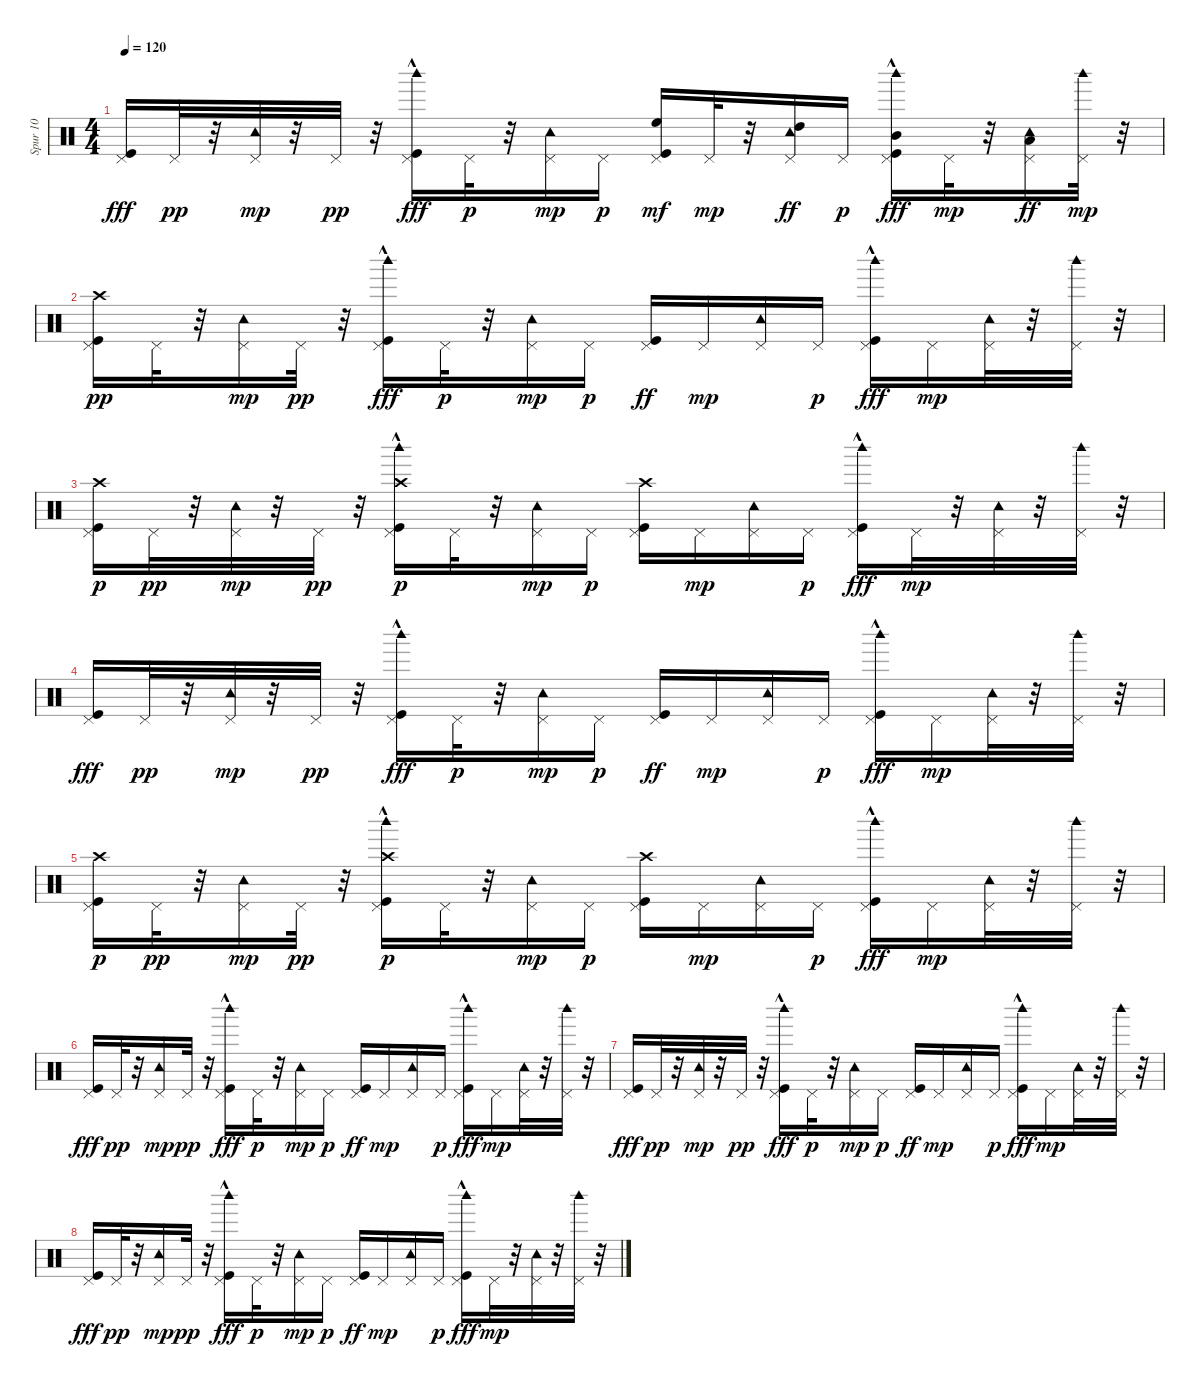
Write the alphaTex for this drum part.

\track ("Spur 10" "Spur 10") {instrument percussion}
\staff {score}
\articulation defaults
\ts (4 4)
\tempo 120
\clef neutral
\ks c
("Pedal Hi-Hat (hit)" "Kick (hit)").16{dy fff} "Pedal Hi-Hat (hit)".32{dy pp} r.32 ("Pedal Hi-Hat (hit)" "Tambourine (hit)").32{dy mp} r.32 "Pedal Hi-Hat (hit)".32{dy pp} r.32 ("Kick (hit)" "Pedal Hi-Hat (hit)" "Woodblock high (hit)"{hac}).16{dy fff} "Pedal Hi-Hat (hit)".32{dy p} r.32 ("Pedal Hi-Hat (hit)" "Tambourine (hit)").16{dy mp} "Pedal Hi-Hat (hit)".16{dy p} ("Kick (hit)" "Pedal Hi-Hat (hit)" "High Floor Tom (hit)").16{dy mf} "Pedal Hi-Hat (hit)".32{dy mp} r.32 ("Pedal Hi-Hat (hit)" "Tambourine (hit)" "High Tom (hit)").16{dy ff} "Pedal Hi-Hat (hit)".16{dy p} ("Kick (hit)"{hac} "Pedal Hi-Hat (hit)" "Woodblock high (hit)" "Mid Tom (hit)").16{dy fff} "Pedal Hi-Hat (hit)".32{dy mp} r.32 ("Pedal Hi-Hat (hit)" "Tambourine (hit)" "Low Tom (hit)").16{dy ff} ("Pedal Hi-Hat (hit)" "Woodblock high (hit)").32{dy mp} r.32 |
("Pedal Hi-Hat (hit)" "Kick (hit)" "Crash high (hit)").16{dy pp} "Pedal Hi-Hat (hit)".32 r.32 ("Pedal Hi-Hat (hit)" "Tambourine (hit)").16{dy mp} "Pedal Hi-Hat (hit)".32{dy pp} r.32 ("Kick (hit)" "Pedal Hi-Hat (hit)" "Woodblock high (hit)"{hac}).16{dy fff} "Pedal Hi-Hat (hit)".32{dy p} r.32 ("Pedal Hi-Hat (hit)" "Tambourine (hit)").16{dy mp} "Pedal Hi-Hat (hit)".16{dy p} ("Kick (hit)" "Pedal Hi-Hat (hit)").16{dy ff} "Pedal Hi-Hat (hit)".16{dy mp} ("Pedal Hi-Hat (hit)" "Tambourine (hit)").16 "Pedal Hi-Hat (hit)".16{dy p} ("Kick (hit)"{hac} "Pedal Hi-Hat (hit)" "Woodblock high (hit)").16{dy fff} "Pedal Hi-Hat (hit)".16{dy mp} ("Pedal Hi-Hat (hit)" "Tambourine (hit)").32 r.32 ("Pedal Hi-Hat (hit)" "Woodblock high (hit)").32 r.32 |
("Pedal Hi-Hat (hit)" "Kick (hit)" "Crash high (hit)").16{dy p} "Pedal Hi-Hat (hit)".32{dy pp} r.32 ("Pedal Hi-Hat (hit)" "Tambourine (hit)").32{dy mp} r.32 "Pedal Hi-Hat (hit)".32{dy pp} r.32 ("Kick (hit)" "Pedal Hi-Hat (hit)" "Woodblock high (hit)"{hac} "Crash high (hit)").16{dy p} "Pedal Hi-Hat (hit)".32 r.32 ("Pedal Hi-Hat (hit)" "Tambourine (hit)").16{dy mp} "Pedal Hi-Hat (hit)".16{dy p} ("Kick (hit)" "Pedal Hi-Hat (hit)" "Crash high (hit)").16 "Pedal Hi-Hat (hit)".16{dy mp} ("Pedal Hi-Hat (hit)" "Tambourine (hit)").16 "Pedal Hi-Hat (hit)".16{dy p} ("Kick (hit)"{hac} "Pedal Hi-Hat (hit)" "Woodblock high (hit)").16{dy fff} "Pedal Hi-Hat (hit)".32{dy mp} r.32 ("Pedal Hi-Hat (hit)" "Tambourine (hit)").32 r.32 ("Pedal Hi-Hat (hit)" "Woodblock high (hit)").32 r.32 |
("Pedal Hi-Hat (hit)" "Kick (hit)").16{dy fff} "Pedal Hi-Hat (hit)".32{dy pp} r.32 ("Pedal Hi-Hat (hit)" "Tambourine (hit)").32{dy mp} r.32 "Pedal Hi-Hat (hit)".32{dy pp} r.32 ("Kick (hit)" "Pedal Hi-Hat (hit)" "Woodblock high (hit)"{hac}).16{dy fff} "Pedal Hi-Hat (hit)".32{dy p} r.32 ("Pedal Hi-Hat (hit)" "Tambourine (hit)").16{dy mp} "Pedal Hi-Hat (hit)".16{dy p} ("Kick (hit)" "Pedal Hi-Hat (hit)").16{dy ff} "Pedal Hi-Hat (hit)".16{dy mp} ("Pedal Hi-Hat (hit)" "Tambourine (hit)").16 "Pedal Hi-Hat (hit)".16{dy p} ("Kick (hit)"{hac} "Pedal Hi-Hat (hit)" "Woodblock high (hit)").16{dy fff} "Pedal Hi-Hat (hit)".16{dy mp} ("Pedal Hi-Hat (hit)" "Tambourine (hit)").32 r.32 ("Pedal Hi-Hat (hit)" "Woodblock high (hit)").32 r.32 |
("Pedal Hi-Hat (hit)" "Kick (hit)" "Crash high (hit)").16{dy p} "Pedal Hi-Hat (hit)".32{dy pp} r.32 ("Pedal Hi-Hat (hit)" "Tambourine (hit)").16{dy mp} "Pedal Hi-Hat (hit)".32{dy pp} r.32 ("Kick (hit)" "Pedal Hi-Hat (hit)" "Woodblock high (hit)"{hac} "Crash high (hit)").16{dy p} "Pedal Hi-Hat (hit)".32 r.32 ("Pedal Hi-Hat (hit)" "Tambourine (hit)").16{dy mp} "Pedal Hi-Hat (hit)".16{dy p} ("Kick (hit)" "Pedal Hi-Hat (hit)" "Crash high (hit)").16 "Pedal Hi-Hat (hit)".16{dy mp} ("Pedal Hi-Hat (hit)" "Tambourine (hit)").16 "Pedal Hi-Hat (hit)".16{dy p} ("Kick (hit)"{hac} "Pedal Hi-Hat (hit)" "Woodblock high (hit)").16{dy fff} "Pedal Hi-Hat (hit)".16{dy mp} ("Pedal Hi-Hat (hit)" "Tambourine (hit)").32 r.32 ("Pedal Hi-Hat (hit)" "Woodblock high (hit)").32 r.32 |
("Pedal Hi-Hat (hit)" "Kick (hit)").16{dy fff} "Pedal Hi-Hat (hit)".32{dy pp} r.32 ("Pedal Hi-Hat (hit)" "Tambourine (hit)").16{dy mp} "Pedal Hi-Hat (hit)".32{dy pp} r.32 ("Kick (hit)" "Pedal Hi-Hat (hit)" "Woodblock high (hit)"{hac}).16{dy fff} "Pedal Hi-Hat (hit)".32{dy p} r.32 ("Pedal Hi-Hat (hit)" "Tambourine (hit)").16{dy mp} "Pedal Hi-Hat (hit)".16{dy p} ("Kick (hit)" "Pedal Hi-Hat (hit)").16{dy ff} "Pedal Hi-Hat (hit)".16{dy mp} ("Pedal Hi-Hat (hit)" "Tambourine (hit)").16 "Pedal Hi-Hat (hit)".16{dy p} ("Kick (hit)"{hac} "Pedal Hi-Hat (hit)" "Woodblock high (hit)").16{dy fff} "Pedal Hi-Hat (hit)".16{dy mp} ("Pedal Hi-Hat (hit)" "Tambourine (hit)").32 r.32 ("Pedal Hi-Hat (hit)" "Woodblock high (hit)").32 r.32 |
("Pedal Hi-Hat (hit)" "Kick (hit)").16{dy fff} "Pedal Hi-Hat (hit)".32{dy pp} r.32 ("Pedal Hi-Hat (hit)" "Tambourine (hit)").32{dy mp} r.32 "Pedal Hi-Hat (hit)".32{dy pp} r.32 ("Kick (hit)" "Pedal Hi-Hat (hit)" "Woodblock high (hit)"{hac}).16{dy fff} "Pedal Hi-Hat (hit)".32{dy p} r.32 ("Pedal Hi-Hat (hit)" "Tambourine (hit)").16{dy mp} "Pedal Hi-Hat (hit)".16{dy p} ("Kick (hit)" "Pedal Hi-Hat (hit)").16{dy ff} "Pedal Hi-Hat (hit)".16{dy mp} ("Pedal Hi-Hat (hit)" "Tambourine (hit)").16 "Pedal Hi-Hat (hit)".16{dy p} ("Kick (hit)"{hac} "Pedal Hi-Hat (hit)" "Woodblock high (hit)").16{dy fff} "Pedal Hi-Hat (hit)".16{dy mp} ("Pedal Hi-Hat (hit)" "Tambourine (hit)").32 r.32 ("Pedal Hi-Hat (hit)" "Woodblock high (hit)").32 r.32 |
("Pedal Hi-Hat (hit)" "Kick (hit)").16{dy fff} "Pedal Hi-Hat (hit)".32{dy pp} r.32 ("Pedal Hi-Hat (hit)" "Tambourine (hit)").16{dy mp} "Pedal Hi-Hat (hit)".32{dy pp} r.32 ("Kick (hit)" "Pedal Hi-Hat (hit)" "Woodblock high (hit)"{hac}).16{dy fff} "Pedal Hi-Hat (hit)".32{dy p} r.32 ("Pedal Hi-Hat (hit)" "Tambourine (hit)").16{dy mp} "Pedal Hi-Hat (hit)".16{dy p} ("Kick (hit)" "Pedal Hi-Hat (hit)").16{dy ff} "Pedal Hi-Hat (hit)".16{dy mp} ("Pedal Hi-Hat (hit)" "Tambourine (hit)").16 "Pedal Hi-Hat (hit)".16{dy p} ("Kick (hit)"{hac} "Pedal Hi-Hat (hit)" "Woodblock high (hit)").16{dy fff} "Pedal Hi-Hat (hit)".32{dy mp} r.32 ("Pedal Hi-Hat (hit)" "Tambourine (hit)").32 r.32 ("Pedal Hi-Hat (hit)" "Woodblock high (hit)").32 r.32
